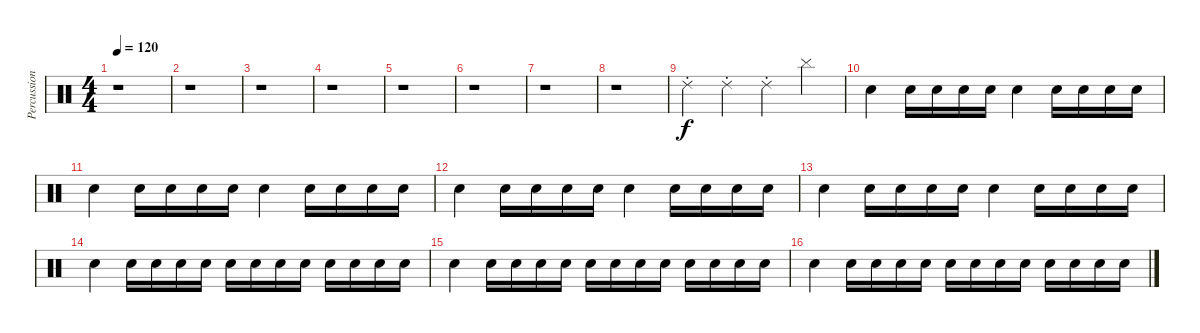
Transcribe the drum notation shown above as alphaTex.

\track ("Percussion" "Percussion") {instrument percussion}
\staff {score}
\articulation defaults
\ts (4 4)
\tempo 120
\clef neutral
\ks c
r.1{dy f} |
r.1 |
r.1 |
r.1 |
r.1 |
r.1 |
r.1 |
r.1 |
"Ride (choke) 2".4 "Ride (choke) 2".4 "Ride (choke) 2".4 "Cymbal (hit)".4 |
"Snare (hit) 2".4 "Snare (hit) 2".16 "Snare (hit) 2".16 "Snare (hit) 2".16 "Snare (hit) 2".16 "Snare (hit) 2".4 "Snare (hit) 2".16 "Snare (hit) 2".16 "Snare (hit) 2".16 "Snare (hit) 2".16 |
"Snare (hit) 2".4 "Snare (hit) 2".16 "Snare (hit) 2".16 "Snare (hit) 2".16 "Snare (hit) 2".16 "Snare (hit) 2".4 "Snare (hit) 2".16 "Snare (hit) 2".16 "Snare (hit) 2".16 "Snare (hit) 2".16 |
"Snare (hit) 2".4 "Snare (hit) 2".16 "Snare (hit) 2".16 "Snare (hit) 2".16 "Snare (hit) 2".16 "Snare (hit) 2".4 "Snare (hit) 2".16 "Snare (hit) 2".16 "Snare (hit) 2".16 "Snare (hit) 2".16 |
"Snare (hit) 2".4 "Snare (hit) 2".16 "Snare (hit) 2".16 "Snare (hit) 2".16 "Snare (hit) 2".16 "Snare (hit) 2".4 "Snare (hit) 2".16 "Snare (hit) 2".16 "Snare (hit) 2".16 "Snare (hit) 2".16 |
"Snare (hit) 2".4 "Snare (hit) 2".16 "Snare (hit) 2".16 "Snare (hit) 2".16 "Snare (hit) 2".16 "Snare (hit) 2".16 "Snare (hit) 2".16 "Snare (hit) 2".16 "Snare (hit) 2".16 "Snare (hit) 2".16 "Snare (hit) 2".16 "Snare (hit) 2".16 "Snare (hit) 2".16 |
"Snare (hit) 2".4 "Snare (hit) 2".16 "Snare (hit) 2".16 "Snare (hit) 2".16 "Snare (hit) 2".16 "Snare (hit) 2".16 "Snare (hit) 2".16 "Snare (hit) 2".16 "Snare (hit) 2".16 "Snare (hit) 2".16 "Snare (hit) 2".16 "Snare (hit) 2".16 "Snare (hit) 2".16 |
"Snare (hit) 2".4 "Snare (hit) 2".16 "Snare (hit) 2".16 "Snare (hit) 2".16 "Snare (hit) 2".16 "Snare (hit) 2".16 "Snare (hit) 2".16 "Snare (hit) 2".16 "Snare (hit) 2".16 "Snare (hit) 2".16 "Snare (hit) 2".16 "Snare (hit) 2".16 "Snare (hit) 2".16
